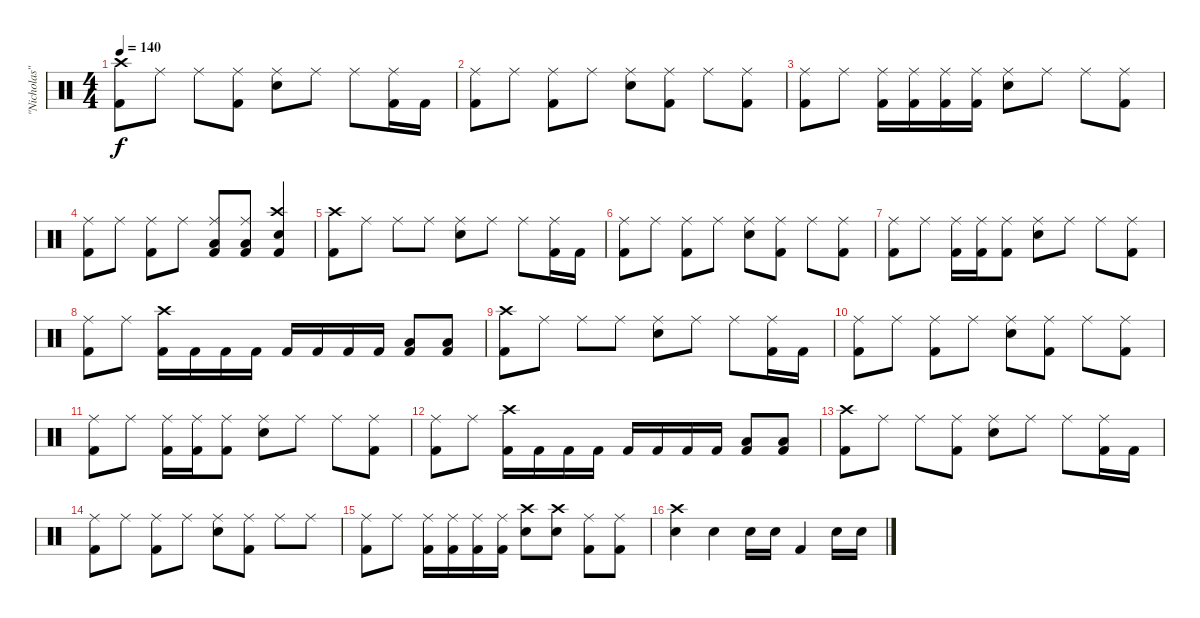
\track ("\"Nicholas\"" "\"Nicholas\"") {instrument percussion}
\staff {score}
\articulation defaults
\ts (4 4)
\tempo 140
\clef neutral
\ks c
("Kick (hit) 2" "Crash high (hit)").8{dy f} "Ride (middle)".8 "Ride (middle)".8 ("Kick (hit) 2" "Ride (middle)").8 ("Snare (hit) 2" "Ride (middle)").8 "Ride (middle)".8 "Ride (middle)".8 ("Kick (hit) 2" "Ride (middle)").16 "Kick (hit) 2".16 |
("Kick (hit) 2" "Ride (middle)").8 "Ride (middle)".8 ("Kick (hit) 2" "Ride (middle)").8 "Ride (middle)".8 ("Snare (hit) 2" "Ride (middle)").8 ("Kick (hit) 2" "Ride (middle)").8 "Ride (middle)".8 ("Kick (hit) 2" "Ride (middle)").8 |
("Kick (hit) 2" "Ride (middle)").8 "Ride (middle)".8 ("Kick (hit) 2" "Ride (middle)").16 ("Kick (hit) 2" "Ride (middle)").16 ("Kick (hit) 2" "Ride (middle)").16 ("Kick (hit) 2" "Ride (middle)").16 ("Snare (hit) 2" "Ride (middle)").8 "Ride (middle)".8 "Ride (middle)".8 ("Kick (hit) 2" "Ride (middle)").8 |
("Kick (hit) 2" "Ride (middle)").8 "Ride (middle)".8 ("Kick (hit) 2" "Ride (middle)").8 "Ride (middle)".8 ("Kick (hit) 2" "Low Tom (hit)" "Ride (middle)").8 ("Kick (hit) 2" "Low Tom (hit)" "Ride (middle)").8 ("Kick (hit) 2" "Snare (hit) 2" "Crash high (hit)").4 |
("Kick (hit) 2" "Crash high (hit)").8 "Ride (middle)".8 "Ride (middle)".8 "Ride (middle)".8 ("Snare (hit) 2" "Ride (middle)").8 "Ride (middle)".8 "Ride (middle)".8 ("Kick (hit) 2" "Ride (middle)").16 "Kick (hit) 2".16 |
("Kick (hit) 2" "Ride (middle)").8 "Ride (middle)".8 ("Kick (hit) 2" "Ride (middle)").8 "Ride (middle)".8 ("Snare (hit) 2" "Ride (middle)").8 ("Kick (hit) 2" "Ride (middle)").8 "Ride (middle)".8 ("Kick (hit) 2" "Ride (middle)").8 |
("Kick (hit) 2" "Ride (middle)").8 "Ride (middle)".8 ("Kick (hit) 2" "Ride (middle)").16 ("Kick (hit) 2" "Ride (middle)").16 ("Kick (hit) 2" "Ride (middle)").8 ("Snare (hit) 2" "Ride (middle)").8 "Ride (middle)".8 "Ride (middle)".8 ("Kick (hit) 2" "Ride (middle)").8 |
("Kick (hit) 2" "Ride (middle)").8 "Ride (middle)".8 ("Kick (hit) 2" "Crash high (hit)").16 "Kick (hit) 2".16 "Kick (hit) 2".16 "Kick (hit) 2".16 "Kick (hit) 2".16 "Kick (hit) 2".16 "Kick (hit) 2".16 "Kick (hit) 2".16 ("Kick (hit) 2" "Low Tom (hit)").8 ("Kick (hit) 2" "Low Tom (hit)").8 |
("Kick (hit) 2" "Crash high (hit)").8 "Ride (middle)".8 "Ride (middle)".8 "Ride (middle)".8 ("Snare (hit) 2" "Ride (middle)").8 "Ride (middle)".8 "Ride (middle)".8 ("Kick (hit) 2" "Ride (middle)").16 "Kick (hit) 2".16 |
("Kick (hit) 2" "Ride (middle)").8 "Ride (middle)".8 ("Kick (hit) 2" "Ride (middle)").8 "Ride (middle)".8 ("Snare (hit) 2" "Ride (middle)").8 ("Kick (hit) 2" "Ride (middle)").8 "Ride (middle)".8 ("Kick (hit) 2" "Ride (middle)").8 |
("Kick (hit) 2" "Ride (middle)").8 "Ride (middle)".8 ("Kick (hit) 2" "Ride (middle)").16 ("Kick (hit) 2" "Ride (middle)").16 ("Kick (hit) 2" "Ride (middle)").8 ("Snare (hit) 2" "Ride (middle)").8 "Ride (middle)".8 "Ride (middle)".8 ("Kick (hit) 2" "Ride (middle)").8 |
("Kick (hit) 2" "Ride (middle)").8 "Ride (middle)".8 ("Kick (hit) 2" "Crash high (hit)").16 "Kick (hit) 2".16 "Kick (hit) 2".16 "Kick (hit) 2".16 "Kick (hit) 2".16 "Kick (hit) 2".16 "Kick (hit) 2".16 "Kick (hit) 2".16 ("Kick (hit) 2" "Low Tom (hit)").8 ("Kick (hit) 2" "Low Tom (hit)").8 |
("Kick (hit) 2" "Crash high (hit)").8 "Ride (middle)".8 "Ride (middle)".8 ("Kick (hit) 2" "Ride (middle)").8 ("Snare (hit) 2" "Ride (middle)").8 "Ride (middle)".8 "Ride (middle)".8 ("Kick (hit) 2" "Ride (middle)").16 "Kick (hit) 2".16 |
("Kick (hit) 2" "Ride (middle)").8 "Ride (middle)".8 ("Kick (hit) 2" "Ride (middle)").8 "Ride (middle)".8 ("Snare (hit) 2" "Ride (middle)").8 ("Kick (hit) 2" "Ride (middle)").8 "Ride (middle)".8 "Ride (middle)".8 |
("Kick (hit) 2" "Ride (middle)").8 "Ride (middle)".8 ("Kick (hit) 2" "Ride (middle)").16 ("Kick (hit) 2" "Ride (middle)").16 ("Kick (hit) 2" "Ride (middle)").16 ("Kick (hit) 2" "Ride (middle)").16 ("Snare (hit) 2" "Crash high (hit)").8 ("Snare (hit) 2" "Crash high (hit)").8 ("Kick (hit) 2" "Ride (middle)").8 ("Kick (hit) 2" "Ride (middle)").8 |
("Snare (hit) 2" "Crash high (hit)").4 "Snare (hit) 2".4 "Snare (hit) 2".16 "Snare (hit) 2".16 "Kick (hit) 2".4 "Snare (hit) 2".16 "Snare (hit) 2".16
